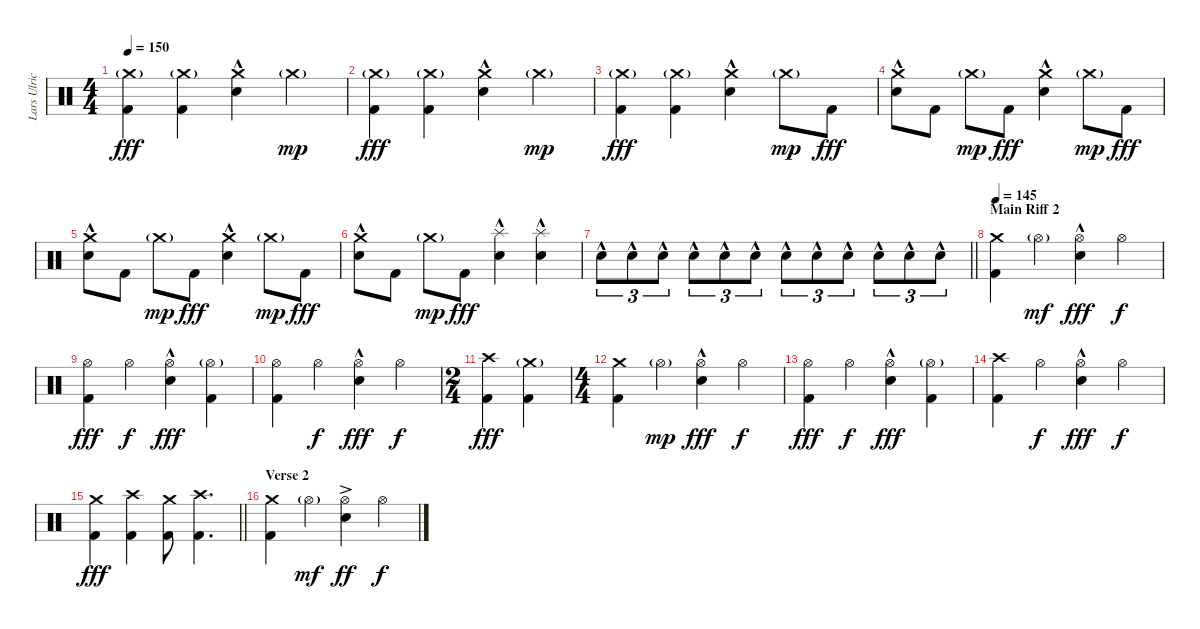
\track ("Lars Ulrich (Drums)" "Lars Ulric") {instrument percussion}
\staff {score}
\articulation defaults
\ts (4 4)
\tempo 150
\clef neutral
\ks c
("Crash medium (hit)"{g} "Kick (hit) 2").4{dy fff} ("Crash medium (hit)"{g} "Kick (hit) 2").4 ("Crash medium (hit)" "Electric Snare (hit)"{hac}).4 "Crash medium (hit)"{g}.4{dy mp} |
("Crash medium (hit)"{g} "Kick (hit) 2").4{dy fff} ("Crash medium (hit)"{g} "Kick (hit) 2").4 ("Crash medium (hit)" "Electric Snare (hit)"{hac}).4 "Crash medium (hit)"{g}.4{dy mp} |
("Crash medium (hit)"{g} "Kick (hit) 2").4{dy fff} ("Crash medium (hit)"{g} "Kick (hit) 2").4 ("Crash medium (hit)" "Electric Snare (hit)"{hac}).4 "Crash medium (hit)"{g}.8{dy mp} "Kick (hit) 2".8{dy fff} |
("Crash medium (hit)" "Electric Snare (hit)"{hac}).8 "Kick (hit) 2".8 "Crash medium (hit)"{g}.8{dy mp} "Kick (hit) 2".8{dy fff} ("Crash medium (hit)" "Electric Snare (hit)"{hac}).4 "Crash medium (hit)"{g}.8{dy mp} "Kick (hit) 2".8{dy fff} |
("Crash medium (hit)" "Electric Snare (hit)"{hac}).8 "Kick (hit) 2".8 "Crash medium (hit)"{g}.8{dy mp} "Kick (hit) 2".8{dy fff} ("Crash medium (hit)" "Electric Snare (hit)"{hac}).4 "Crash medium (hit)"{g}.8{dy mp} "Kick (hit) 2".8{dy fff} |
("Crash medium (hit)" "Electric Snare (hit)"{hac}).8 "Kick (hit) 2".8 "Crash medium (hit)"{g}.8{dy mp} "Kick (hit) 2".8{dy fff} ("Splash (hit)" "Electric Snare (hit)"{hac}).4 ("Splash (hit)" "Electric Snare (hit)"{hac}).4 |
\barLineRight lightlight "Electric Snare (hit)"{hac}.8{tu (3 2)} "Electric Snare (hit)"{hac}.8{tu (3 2)} "Electric Snare (hit)"{hac}.8{tu (3 2)} "Electric Snare (hit)"{hac}.8{tu (3 2)} "Electric Snare (hit)"{hac}.8{tu (3 2)} "Electric Snare (hit)"{hac}.8{tu (3 2)} "Electric Snare (hit)"{hac}.8{tu (3 2)} "Electric Snare (hit)"{hac}.8{tu (3 2)} "Electric Snare (hit)"{hac}.8{tu (3 2)} "Electric Snare (hit)"{hac}.8{tu (3 2)} "Electric Snare (hit)"{hac}.8{tu (3 2)} "Electric Snare (hit)"{hac}.8{tu (3 2)}
|
\section ("" "Main Riff 2")
\tempo 145
("Crash medium (hit)" "Kick (hit) 2").4 "Hi-Hat (open)"{g}.4{dy mf} ("Hi-Hat (open)"{hac} "Electric Snare (hit)"{hac}).4{dy fff} "Hi-Hat (open)".4{dy f} |
("Hi-Hat (open)" "Kick (hit) 2").4{dy fff} "Hi-Hat (open)".4{dy f} ("Hi-Hat (open)"{hac} "Electric Snare (hit)"{hac}).4{dy fff} ("Hi-Hat (open)"{g} "Kick (hit) 2").4 |
("Hi-Hat (open)" "Kick (hit) 2").4 "Hi-Hat (open)".4{dy f} ("Hi-Hat (open)"{hac} "Electric Snare (hit)"{hac}).4{dy fff} "Hi-Hat (open)".4{dy f} |
\ts (2 4)
("Crash high (hit)" "Kick (hit) 2").4{dy fff} ("Crash medium (hit)"{g} "Kick (hit) 2").4 |
\ts (4 4)
("Crash medium (hit)" "Kick (hit) 2").4 "Hi-Hat (open)"{g}.4{dy mp} ("Hi-Hat (open)"{hac} "Electric Snare (hit)"{hac}).4{dy fff} "Hi-Hat (open)".4{dy f} |
("Hi-Hat (open)" "Kick (hit) 2").4{dy fff} "Hi-Hat (open)".4{dy f} ("Hi-Hat (open)"{hac} "Electric Snare (hit)"{hac}).4{dy fff} ("Hi-Hat (open)"{g} "Kick (hit) 2").4 |
("Crash high (hit)" "Kick (hit) 2").4 "Hi-Hat (open)".4{dy f} ("Hi-Hat (open)"{hac} "Electric Snare (hit)"{hac}).4{dy fff} "Hi-Hat (open)".4{dy f} |
\barLineRight lightlight
("Crash medium (hit)" "Kick (hit) 2").4{dy fff} ("Crash high (hit)" "Kick (hit) 2").4 ("Crash medium (hit)" "Kick (hit) 2").8 ("Crash high (hit)" "Kick (hit) 2").4{d} |
\section ("" "Verse 2")
("Crash medium (hit)" "Kick (hit) 2").4 "Hi-Hat (open)"{g}.4{dy mf} ("Hi-Hat (open)"{ac} "Electric Snare (hit)"{ac}).4{dy ff} "Hi-Hat (open)".4{dy f}
